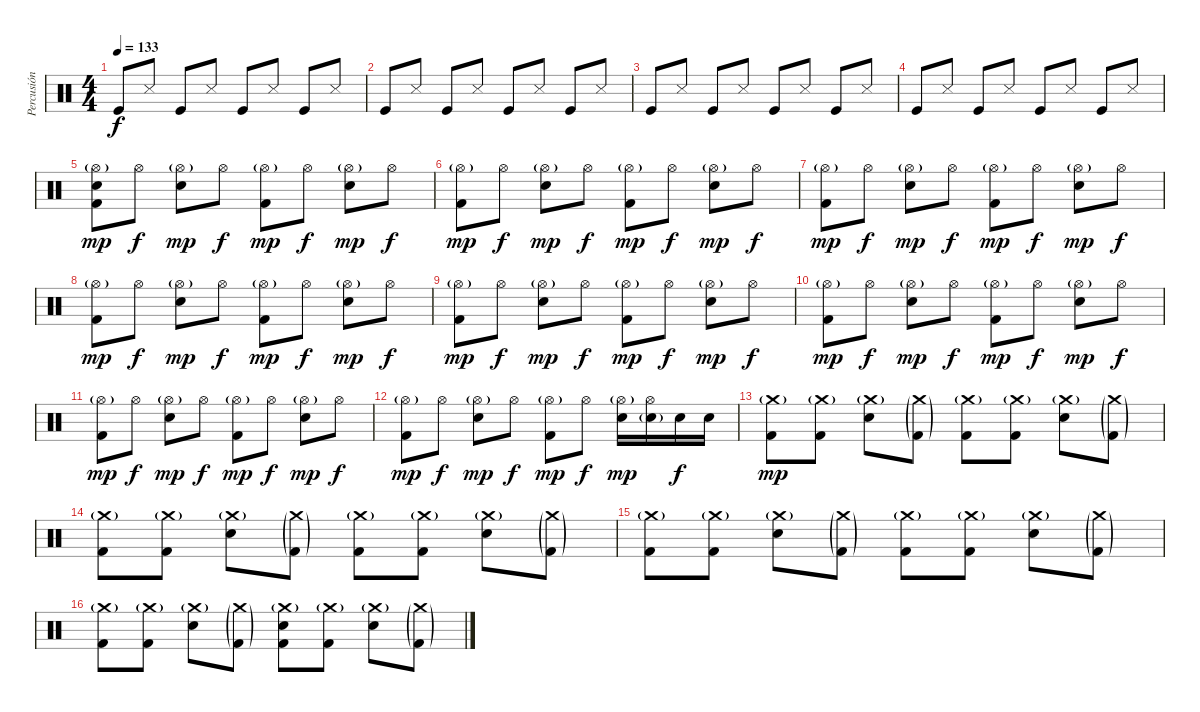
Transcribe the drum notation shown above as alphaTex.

\track ("Percusión" "Percusión") {instrument percussion}
\staff {score}
\articulation defaults
\ts (4 4)
\tempo 133
\clef neutral
\ks c "Kick (hit)".8{dy f} "Snare (side stick) 3".8 "Kick (hit)".8 "Snare (side stick) 3".8 "Kick (hit)".8 "Snare (side stick) 3".8 "Kick (hit)".8 "Snare (side stick) 3".8
|
"Kick (hit)".8 "Snare (side stick) 3".8 "Kick (hit)".8 "Snare (side stick) 3".8 "Kick (hit)".8 "Snare (side stick) 3".8 "Kick (hit)".8 "Snare (side stick) 3".8 |
"Kick (hit)".8 "Snare (side stick) 3".8 "Kick (hit)".8 "Snare (side stick) 3".8 "Kick (hit)".8 "Snare (side stick) 3".8 "Kick (hit)".8 "Snare (side stick) 3".8 |
"Kick (hit)".8 "Snare (side stick) 3".8 "Kick (hit)".8 "Snare (side stick) 3".8 "Kick (hit)".8 "Snare (side stick) 3".8 "Kick (hit)".8 "Snare (side stick) 3".8 |
("Kick (hit) 2" "Electric Snare (hit)" "Hi-Hat (open)"{g}).8{dy mp} "Hi-Hat (open)".8{dy f} ("Electric Snare (hit)" "Hi-Hat (open)"{g}).8{dy mp} "Hi-Hat (open)".8{dy f} ("Kick (hit) 2" "Hi-Hat (open)"{g}).8{dy mp} "Hi-Hat (open)".8{dy f} ("Electric Snare (hit)" "Hi-Hat (open)"{g}).8{dy mp} "Hi-Hat (open)".8{dy f} |
("Kick (hit) 2" "Hi-Hat (open)"{g}).8{dy mp} "Hi-Hat (open)".8{dy f} ("Electric Snare (hit)" "Hi-Hat (open)"{g}).8{dy mp} "Hi-Hat (open)".8{dy f} ("Kick (hit) 2" "Hi-Hat (open)"{g}).8{dy mp} "Hi-Hat (open)".8{dy f} ("Electric Snare (hit)" "Hi-Hat (open)"{g}).8{dy mp} "Hi-Hat (open)".8{dy f} |
("Kick (hit) 2" "Hi-Hat (open)"{g}).8{dy mp} "Hi-Hat (open)".8{dy f} ("Electric Snare (hit)" "Hi-Hat (open)"{g}).8{dy mp} "Hi-Hat (open)".8{dy f} ("Kick (hit) 2" "Hi-Hat (open)"{g}).8{dy mp} "Hi-Hat (open)".8{dy f} ("Electric Snare (hit)" "Hi-Hat (open)"{g}).8{dy mp} "Hi-Hat (open)".8{dy f} |
("Kick (hit) 2" "Hi-Hat (open)"{g}).8{dy mp} "Hi-Hat (open)".8{dy f} ("Electric Snare (hit)" "Hi-Hat (open)"{g}).8{dy mp} "Hi-Hat (open)".8{dy f} ("Kick (hit) 2" "Hi-Hat (open)"{g}).8{dy mp} "Hi-Hat (open)".8{dy f} ("Electric Snare (hit)" "Hi-Hat (open)"{g}).8{dy mp} "Hi-Hat (open)".8{dy f} |
("Kick (hit) 2" "Hi-Hat (open)"{g}).8{dy mp} "Hi-Hat (open)".8{dy f} ("Electric Snare (hit)" "Hi-Hat (open)"{g}).8{dy mp} "Hi-Hat (open)".8{dy f} ("Kick (hit) 2" "Hi-Hat (open)"{g}).8{dy mp} "Hi-Hat (open)".8{dy f} ("Electric Snare (hit)" "Hi-Hat (open)"{g}).8{dy mp} "Hi-Hat (open)".8{dy f} |
("Kick (hit) 2" "Hi-Hat (open)"{g}).8{dy mp} "Hi-Hat (open)".8{dy f} ("Electric Snare (hit)" "Hi-Hat (open)"{g}).8{dy mp} "Hi-Hat (open)".8{dy f} ("Kick (hit) 2" "Hi-Hat (open)"{g}).8{dy mp} "Hi-Hat (open)".8{dy f} ("Electric Snare (hit)" "Hi-Hat (open)"{g}).8{dy mp} "Hi-Hat (open)".8{dy f} |
("Kick (hit) 2" "Hi-Hat (open)"{g}).8{dy mp} "Hi-Hat (open)".8{dy f} ("Electric Snare (hit)" "Hi-Hat (open)"{g}).8{dy mp} "Hi-Hat (open)".8{dy f} ("Kick (hit) 2" "Hi-Hat (open)"{g}).8{dy mp} "Hi-Hat (open)".8{dy f} ("Electric Snare (hit)" "Hi-Hat (open)"{g}).8{dy mp} "Hi-Hat (open)".8{dy f} |
("Kick (hit) 2" "Hi-Hat (open)"{g}).8{dy mp} "Hi-Hat (open)".8{dy f} ("Electric Snare (hit)" "Hi-Hat (open)"{g}).8{dy mp} "Hi-Hat (open)".8{dy f} ("Kick (hit) 2" "Hi-Hat (open)"{g}).8{dy mp} "Hi-Hat (open)".8{dy f} ("Electric Snare (hit)" "Hi-Hat (open)"{g}).16{dy mp} ("Electric Snare (hit)"{g} "Hi-Hat (open)").16 "Electric Snare (hit)".16{dy f} "Electric Snare (hit)".16 |
("Crash medium (hit)"{g} "Kick (hit) 2").8{dy mp} ("Crash medium (hit)"{g} "Kick (hit) 2").8 ("Crash medium (hit)"{g} "Electric Snare (hit)").8 ("Crash medium (hit)"{g} "Kick (hit) 2"{g}).8 ("Crash medium (hit)"{g} "Kick (hit) 2").8 ("Crash medium (hit)"{g} "Kick (hit) 2").8 ("Crash medium (hit)"{g} "Electric Snare (hit)").8 ("Crash medium (hit)"{g} "Kick (hit) 2"{g}).8 |
("Crash medium (hit)"{g} "Kick (hit) 2").8 ("Crash medium (hit)"{g} "Kick (hit) 2").8 ("Crash medium (hit)"{g} "Electric Snare (hit)").8 ("Crash medium (hit)"{g} "Kick (hit) 2"{g}).8 ("Crash medium (hit)"{g} "Kick (hit) 2").8 ("Crash medium (hit)"{g} "Kick (hit) 2").8 ("Crash medium (hit)"{g} "Electric Snare (hit)").8 ("Crash medium (hit)"{g} "Kick (hit) 2"{g}).8 |
("Crash medium (hit)"{g} "Kick (hit) 2").8 ("Crash medium (hit)"{g} "Kick (hit) 2").8 ("Crash medium (hit)"{g} "Electric Snare (hit)").8 ("Crash medium (hit)"{g} "Kick (hit) 2"{g}).8 ("Crash medium (hit)"{g} "Kick (hit) 2").8 ("Crash medium (hit)"{g} "Kick (hit) 2").8 ("Crash medium (hit)"{g} "Electric Snare (hit)").8 ("Crash medium (hit)"{g} "Kick (hit) 2"{g}).8 |
("Crash medium (hit)"{g} "Kick (hit) 2").8 ("Crash medium (hit)"{g} "Kick (hit) 2").8 ("Crash medium (hit)"{g} "Electric Snare (hit)").8 ("Crash medium (hit)"{g} "Kick (hit) 2"{g}).8 ("Crash medium (hit)"{g} "Electric Snare (hit)" "Kick (hit) 2").8 ("Crash medium (hit)"{g} "Kick (hit) 2").8 ("Crash medium (hit)"{g} "Electric Snare (hit)").8 ("Crash medium (hit)"{g} "Kick (hit) 2"{g}).8
